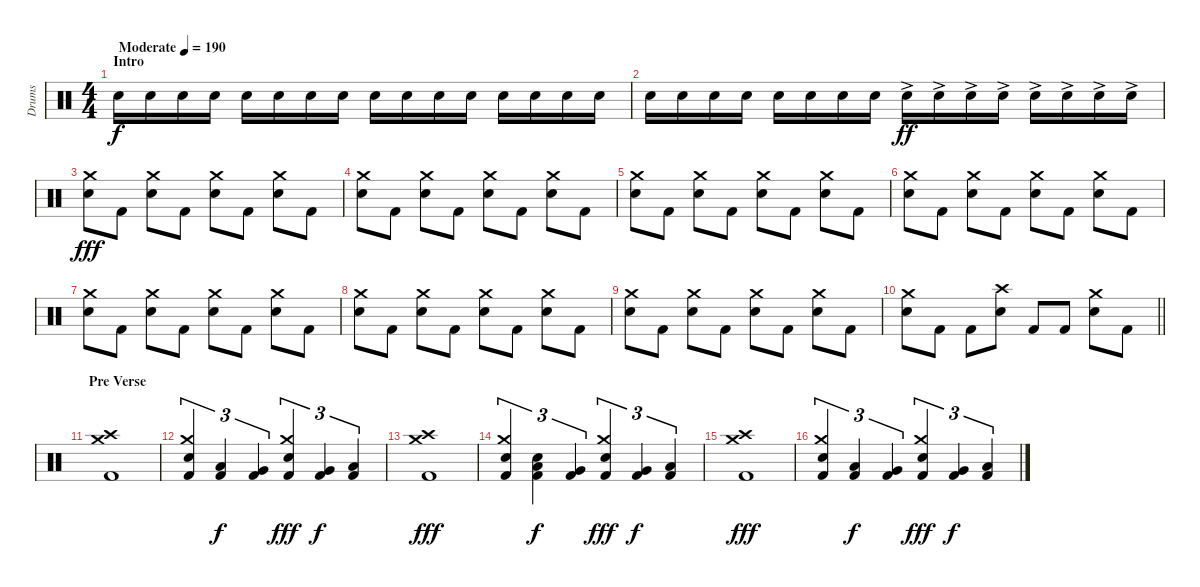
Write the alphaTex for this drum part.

\track ("Drums" "Drums") {instrument percussion}
\staff {score}
\articulation defaults
\ts (4 4)
\section ("" "Intro")
\tempo (190 "Moderate")
\clef neutral
\ks c "Electric Snare (hit)".16{dy f volume 2} "Electric Snare (hit)".16{volume 13} "Electric Snare (hit)".16 "Electric Snare (hit)".16 "Electric Snare (hit)".16 "Electric Snare (hit)".16 "Electric Snare (hit)".16 "Electric Snare (hit)".16 "Electric Snare (hit)".16 "Electric Snare (hit)".16 "Electric Snare (hit)".16 "Electric Snare (hit)".16 "Electric Snare (hit)".16 "Electric Snare (hit)".16 "Electric Snare (hit)".16 "Electric Snare (hit)".16
|
"Electric Snare (hit)".16 "Electric Snare (hit)".16 "Electric Snare (hit)".16 "Electric Snare (hit)".16 "Electric Snare (hit)".16 "Electric Snare (hit)".16 "Electric Snare (hit)".16 "Electric Snare (hit)".16 "Electric Snare (hit)"{ac}.16{dy ff} "Electric Snare (hit)"{ac}.16 "Electric Snare (hit)"{ac}.16 "Electric Snare (hit)"{ac}.16 "Electric Snare (hit)"{ac}.16 "Electric Snare (hit)"{ac}.16 "Electric Snare (hit)"{ac}.16 "Electric Snare (hit)"{ac}.16 |
("Crash medium (hit)" "Electric Snare (hit)").8{dy fff} "Kick (hit) 2".8 ("Crash medium (hit)" "Electric Snare (hit)").8 "Kick (hit) 2".8 ("Crash medium (hit)" "Electric Snare (hit)").8 "Kick (hit) 2".8 ("Crash medium (hit)" "Electric Snare (hit)").8 "Kick (hit) 2".8 |
("Crash medium (hit)" "Electric Snare (hit)").8 "Kick (hit) 2".8 ("Crash medium (hit)" "Electric Snare (hit)").8 "Kick (hit) 2".8 ("Crash medium (hit)" "Electric Snare (hit)").8 "Kick (hit) 2".8 ("Crash medium (hit)" "Electric Snare (hit)").8 "Kick (hit) 2".8 |
("Crash medium (hit)" "Electric Snare (hit)").8 "Kick (hit) 2".8 ("Crash medium (hit)" "Electric Snare (hit)").8 "Kick (hit) 2".8 ("Crash medium (hit)" "Electric Snare (hit)").8 "Kick (hit) 2".8 ("Crash medium (hit)" "Electric Snare (hit)").8 "Kick (hit) 2".8 |
("Crash medium (hit)" "Electric Snare (hit)").8 "Kick (hit) 2".8 ("Crash medium (hit)" "Electric Snare (hit)").8 "Kick (hit) 2".8 ("Crash medium (hit)" "Electric Snare (hit)").8 "Kick (hit) 2".8 ("Crash medium (hit)" "Electric Snare (hit)").8 "Kick (hit) 2".8 |
("Crash medium (hit)" "Electric Snare (hit)").8 "Kick (hit) 2".8 ("Crash medium (hit)" "Electric Snare (hit)").8 "Kick (hit) 2".8 ("Crash medium (hit)" "Electric Snare (hit)").8 "Kick (hit) 2".8 ("Crash medium (hit)" "Electric Snare (hit)").8 "Kick (hit) 2".8 |
("Crash medium (hit)" "Electric Snare (hit)").8 "Kick (hit) 2".8 ("Crash medium (hit)" "Electric Snare (hit)").8 "Kick (hit) 2".8 ("Crash medium (hit)" "Electric Snare (hit)").8 "Kick (hit) 2".8 ("Crash medium (hit)" "Electric Snare (hit)").8 "Kick (hit) 2".8 |
("Crash medium (hit)" "Electric Snare (hit)").8 "Kick (hit) 2".8 ("Crash medium (hit)" "Electric Snare (hit)").8 "Kick (hit) 2".8 ("Crash medium (hit)" "Electric Snare (hit)").8 "Kick (hit) 2".8 ("Crash medium (hit)" "Electric Snare (hit)").8 "Kick (hit) 2".8 |
\barLineRight lightlight
("Crash medium (hit)" "Electric Snare (hit)").8 "Kick (hit) 2".8 "Kick (hit) 2".8 ("Crash high (hit)" "Electric Snare (hit)").8 "Kick (hit) 2".8 "Kick (hit) 2".8 ("Crash medium (hit)" "Electric Snare (hit)").8 "Kick (hit) 2".8 |
\section ("" "Pre Verse")
("Crash high (hit)" "Crash medium (hit)" "Kick (hit) 2").1 |
("Crash medium (hit)" "Electric Snare (hit)" "Kick (hit) 2").4{tu (3 2)} ("Low Tom (hit)" "Kick (hit) 2").4{tu (3 2) dy f} ("Very Low Tom (hit)" "Kick (hit) 2").4{tu (3 2)} ("Crash medium (hit)" "Electric Snare (hit)" "Kick (hit) 2").4{tu (3 2) dy fff} ("Very Low Tom (hit)" "Kick (hit) 2").4{tu (3 2) dy f} ("Low Floor Tom (hit)" "Kick (hit) 2").4{tu (3 2)} |
("Crash high (hit)" "Crash medium (hit)" "Kick (hit) 2").1{dy fff} |
("Crash medium (hit)" "Electric Snare (hit)" "Kick (hit) 2").4{tu (3 2)} ("Electric Snare (hit)" "Low Tom (hit)" "Kick (hit) 2").4{tu (3 2) dy f} ("Very Low Tom (hit)" "Kick (hit) 2").4{tu (3 2)} ("Crash medium (hit)" "Electric Snare (hit)" "Kick (hit) 2").4{tu (3 2) dy fff} ("Very Low Tom (hit)" "Kick (hit) 2").4{tu (3 2) dy f} ("Low Floor Tom (hit)" "Kick (hit) 2").4{tu (3 2)} |
("Crash high (hit)" "Crash medium (hit)" "Kick (hit) 2").1{dy fff} |
("Crash medium (hit)" "Electric Snare (hit)" "Kick (hit) 2").4{tu (3 2)} ("Low Tom (hit)" "Kick (hit) 2").4{tu (3 2) dy f} ("Very Low Tom (hit)" "Kick (hit) 2").4{tu (3 2)} ("Crash medium (hit)" "Electric Snare (hit)" "Kick (hit) 2").4{tu (3 2) dy fff} ("Very Low Tom (hit)" "Kick (hit) 2").4{tu (3 2) dy f} ("Low Floor Tom (hit)" "Kick (hit) 2").4{tu (3 2)}
